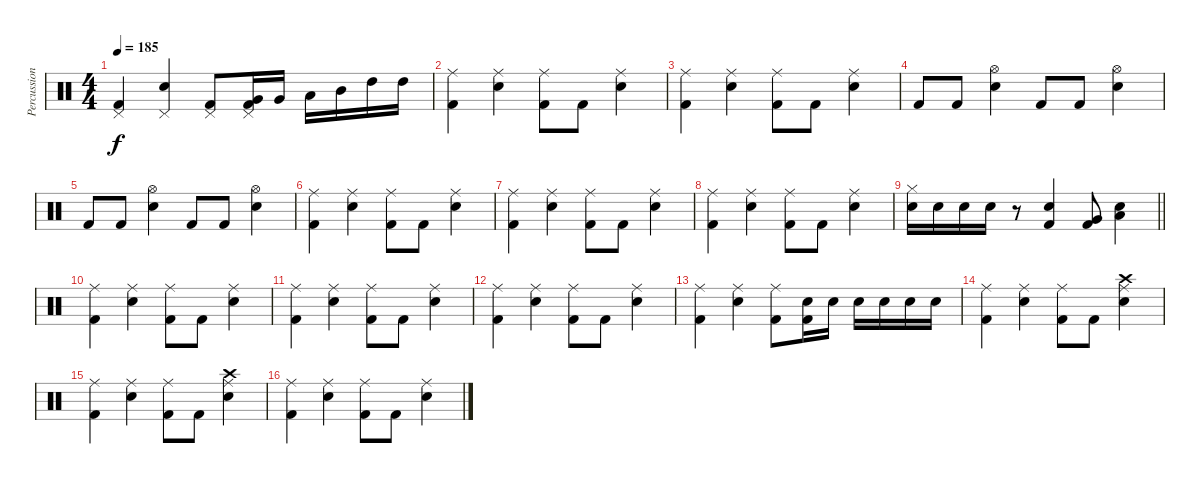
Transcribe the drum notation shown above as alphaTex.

\track ("Percussion" "Percussion") {instrument percussion}
\staff {score}
\articulation defaults
\ts (4 4)
\tempo 185
\clef neutral
\ks c
("Pedal Hi-Hat (hit)" "Kick (hit) 2").4{dy f} ("Pedal Hi-Hat (hit)" "Electric Snare (hit)").4 ("Pedal Hi-Hat (hit)" "Kick (hit) 2").8 ("Very Low Tom (hit)" "Pedal Hi-Hat (hit)" "Kick (hit) 2").16 "Very Low Tom (hit)".16 "Low Tom (hit)".16 "Mid Tom (hit)".16 "High Tom (hit)".16 "High Tom (hit)".16 |
("Ride (middle)" "Kick (hit) 2").4 ("Ride (middle)" "Electric Snare (hit)").4 ("Ride (middle)" "Kick (hit) 2").8 "Kick (hit) 2".8 ("Ride (middle)" "Electric Snare (hit)").4 |
("Ride (middle)" "Kick (hit) 2").4 ("Ride (middle)" "Electric Snare (hit)").4 ("Ride (middle)" "Kick (hit) 2").8 "Kick (hit) 2".8 ("Ride (middle)" "Electric Snare (hit)").4 |
"Kick (hit) 2".8 "Kick (hit) 2".8 ("Electric Snare (hit)" "Hi-Hat (open)").4 "Kick (hit) 2".8 "Kick (hit) 2".8 ("Hi-Hat (open)" "Electric Snare (hit)").4 |
"Kick (hit) 2".8 "Kick (hit) 2".8 ("Electric Snare (hit)" "Hi-Hat (open)").4 "Kick (hit) 2".8 "Kick (hit) 2".8 ("Hi-Hat (open)" "Electric Snare (hit)").4 |
("Ride (middle)" "Kick (hit) 2").4 ("Ride (middle)" "Electric Snare (hit)").4 ("Ride (middle)" "Kick (hit) 2").8 "Kick (hit) 2".8 ("Ride (middle)" "Electric Snare (hit)").4 |
("Ride (middle)" "Kick (hit) 2").4 ("Ride (middle)" "Electric Snare (hit)").4 ("Ride (middle)" "Kick (hit) 2").8 "Kick (hit) 2".8 ("Ride (middle)" "Electric Snare (hit)").4 |
("Ride (middle)" "Kick (hit) 2").4 ("Ride (middle)" "Electric Snare (hit)").4 ("Ride (middle)" "Kick (hit) 2").8 "Kick (hit) 2".8 ("Ride (middle)" "Electric Snare (hit)").4 |
\barLineRight lightlight
("Electric Snare (hit)" "Hi-Hat (closed)").16 "Electric Snare (hit)".16 "Electric Snare (hit)".16 "Electric Snare (hit)".16 r.8 ("Electric Snare (hit)" "Kick (hit) 2").4 ("Kick (hit) 2" "Very Low Tom (hit)").8 ("Electric Snare (hit)" "Low Tom (hit)").4 |
("Ride (middle)" "Kick (hit) 2").4 ("Ride (middle)" "Electric Snare (hit)").4 ("Ride (middle)" "Kick (hit) 2").8 "Kick (hit) 2".8 ("Ride (middle)" "Electric Snare (hit)").4 |
("Ride (middle)" "Kick (hit) 2").4 ("Ride (middle)" "Electric Snare (hit)").4 ("Ride (middle)" "Kick (hit) 2").8 "Kick (hit) 2".8 ("Ride (middle)" "Electric Snare (hit)").4 |
("Ride (middle)" "Kick (hit) 2").4 ("Ride (middle)" "Electric Snare (hit)").4 ("Ride (middle)" "Kick (hit) 2").8 "Kick (hit) 2".8 ("Ride (middle)" "Electric Snare (hit)").4 |
("Ride (middle)" "Kick (hit) 2").4 ("Ride (middle)" "Electric Snare (hit)").4 ("Ride (middle)" "Kick (hit) 2").8 ("Electric Snare (hit)" "Kick (hit) 2").16 "Electric Snare (hit)".16 "Electric Snare (hit)".16 "Electric Snare (hit)".16 "Electric Snare (hit)".16 "Electric Snare (hit)".16 |
("Ride (middle)" "Kick (hit) 2").4 ("Ride (middle)" "Electric Snare (hit)").4 ("Ride (middle)" "Kick (hit) 2").8 "Kick (hit) 2".8 ("Ride (middle)" "Electric Snare (hit)" "Crash high (hit)").4 |
("Ride (middle)" "Kick (hit) 2").4 ("Ride (middle)" "Electric Snare (hit)").4 ("Ride (middle)" "Kick (hit) 2").8 "Kick (hit) 2".8 ("Ride (middle)" "Electric Snare (hit)" "Crash high (hit)").4 |
("Ride (middle)" "Kick (hit) 2").4 ("Ride (middle)" "Electric Snare (hit)").4 ("Ride (middle)" "Kick (hit) 2").8 "Kick (hit) 2".8 ("Ride (middle)" "Electric Snare (hit)").4
